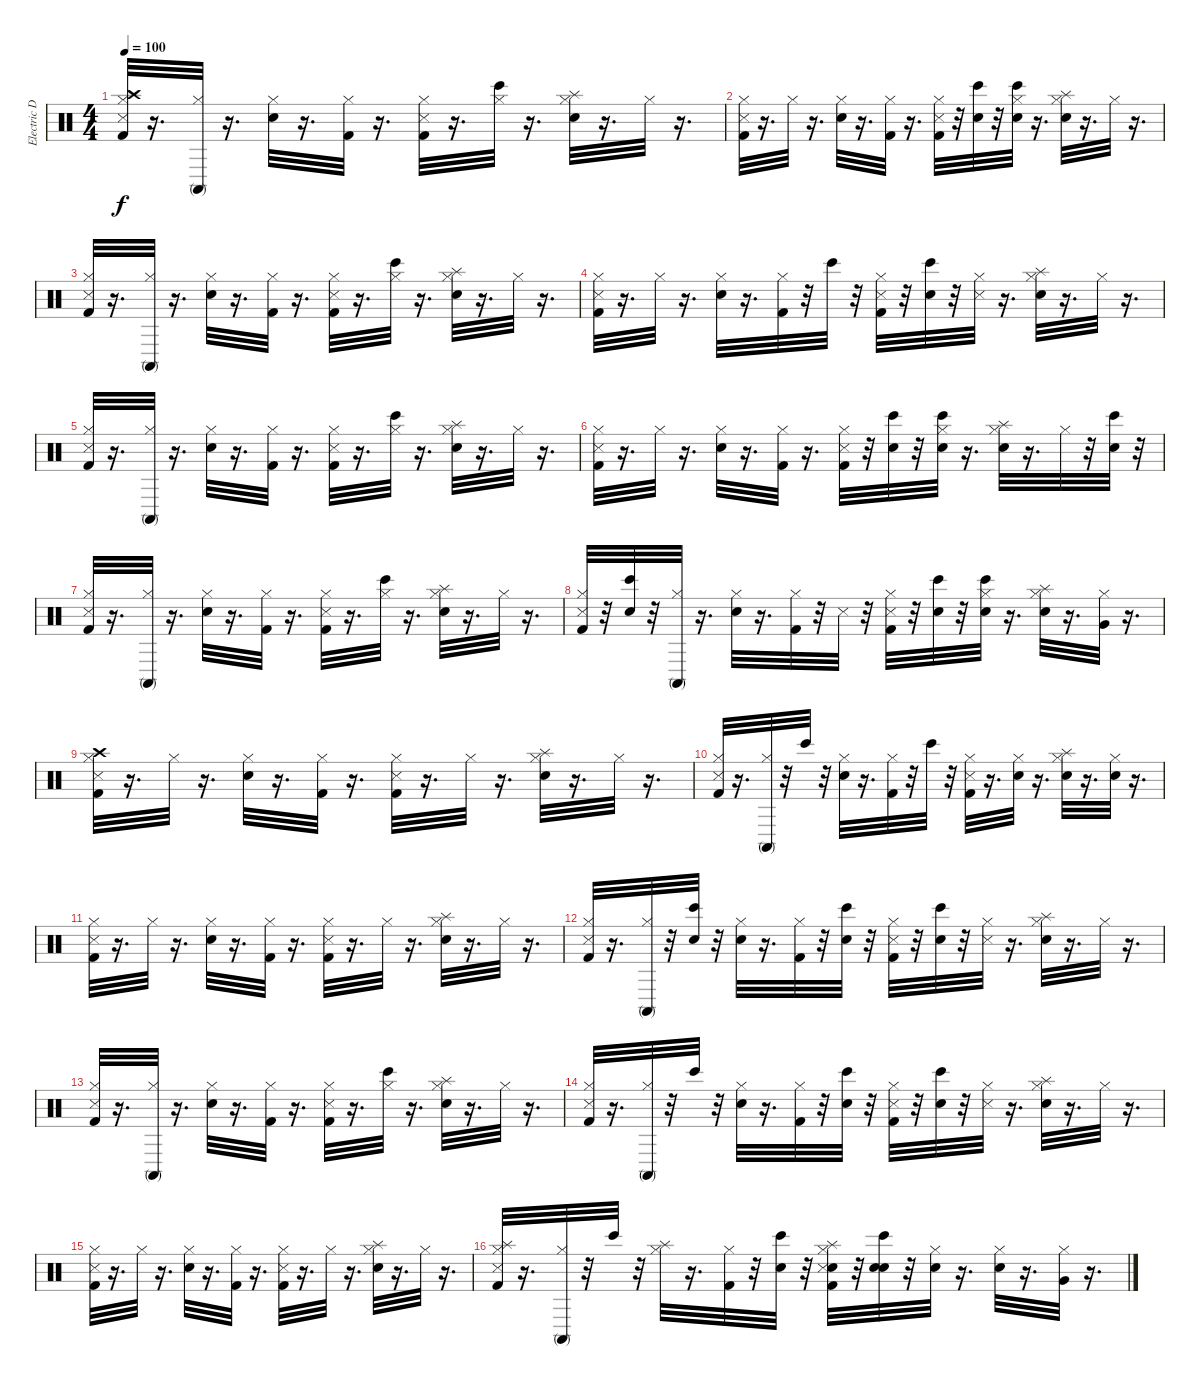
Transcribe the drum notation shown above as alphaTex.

\track ("Electric Drums" "Electric D") {instrument percussion}
\staff {score}
\articulation defaults
\ts (4 4)
\tempo 100
\clef neutral
\ks c
("Crash high (hit)" "Kick (hit) 2" "Hi-Hat (closed)" "Metronome (hit)").32{dy f} r.16{d} ("Hi-Hat (closed)" "Conga high (mute)").32 r.16{d} ("Electric Snare (hit)" "Hi-Hat (closed)").32 r.16{d} ("Kick (hit) 2" "Hi-Hat (closed)").32 r.16{d} ("Kick (hit) 2" "Hi-Hat (closed)" "Metronome (hit)").32 r.16{d} ("Hi-Hat (closed)" "Bongo High (hit)").32 r.16{d} ("Electric Snare (hit)" "Hi-Hat (closed)" "Splash (hit)").32 r.16{d} "Hi-Hat (closed)".32 r.16{d} |
("Kick (hit) 2" "Hi-Hat (closed)" "Metronome (hit)").32 r.16{d} "Hi-Hat (closed)".32 r.16{d} ("Electric Snare (hit)" "Hi-Hat (closed)").32 r.16{d} ("Kick (hit) 2" "Hi-Hat (closed)").32 r.16{d} ("Kick (hit) 2" "Hi-Hat (closed)" "Metronome (hit)").32 r.32 ("Snare (hit)" "Bongo High (hit)").32 r.32 ("Snare (hit)" "Hi-Hat (closed)" "Bongo High (hit)").32 r.16{d} ("Electric Snare (hit)" "Hi-Hat (closed)" "Splash (hit)").32 r.16{d} "Hi-Hat (closed)".32 r.16{d} |
("Kick (hit) 2" "Hi-Hat (closed)" "Metronome (hit)").32 r.16{d} ("Hi-Hat (closed)" "Conga high (mute)").32 r.16{d} ("Electric Snare (hit)" "Hi-Hat (closed)").32 r.16{d} ("Kick (hit) 2" "Hi-Hat (closed)").32 r.16{d} ("Kick (hit) 2" "Hi-Hat (closed)" "Metronome (hit)").32 r.16{d} ("Hi-Hat (closed)" "Bongo High (hit)").32 r.16{d} ("Electric Snare (hit)" "Hi-Hat (closed)" "Splash (hit)").32 r.16{d} "Hi-Hat (closed)".32 r.16{d} |
("Kick (hit) 2" "Hi-Hat (closed)" "Metronome (hit)").32 r.16{d} "Hi-Hat (closed)".32 r.16{d} ("Electric Snare (hit)" "Hi-Hat (closed)").32 r.16{d} ("Kick (hit) 2" "Hi-Hat (closed)").32 r.32 "Bongo High (hit)".32 r.32 ("Kick (hit) 2" "Hi-Hat (closed)" "Metronome (hit)").32 r.32 ("Snare (hit)" "Bongo High (hit)").32 r.32 ("Hi-Hat (closed)" "Metronome (hit)").32 r.16{d} ("Electric Snare (hit)" "Hi-Hat (closed)" "Splash (hit)").32 r.16{d} "Hi-Hat (closed)".32 r.16{d} |
("Kick (hit) 2" "Hi-Hat (closed)" "Metronome (hit)").32 r.16{d} ("Hi-Hat (closed)" "Conga high (mute)").32 r.16{d} ("Electric Snare (hit)" "Hi-Hat (closed)").32 r.16{d} ("Kick (hit) 2" "Hi-Hat (closed)").32 r.16{d} ("Kick (hit) 2" "Hi-Hat (closed)" "Metronome (hit)").32 r.16{d} ("Hi-Hat (closed)" "Bongo High (hit)").32 r.16{d} ("Electric Snare (hit)" "Hi-Hat (closed)" "Splash (hit)").32 r.16{d} "Hi-Hat (closed)".32 r.16{d} |
("Kick (hit) 2" "Hi-Hat (closed)" "Metronome (hit)").32 r.16{d} "Hi-Hat (closed)".32 r.16{d} ("Electric Snare (hit)" "Hi-Hat (closed)").32 r.16{d} ("Kick (hit) 2" "Hi-Hat (closed)").32 r.16{d} ("Kick (hit) 2" "Hi-Hat (closed)" "Metronome (hit)").32 r.32 ("Snare (hit)" "Bongo High (hit)").32 r.32 ("Snare (hit)" "Hi-Hat (closed)" "Bongo High (hit)").32 r.16{d} ("Electric Snare (hit)" "Hi-Hat (closed)" "Splash (hit)").32 r.16{d} "Hi-Hat (closed)".32 r.32 ("Snare (hit)" "Bongo High (hit)").32 r.32 |
("Kick (hit) 2" "Hi-Hat (closed)" "Metronome (hit)").32 r.16{d} ("Hi-Hat (closed)" "Conga high (mute)").32 r.16{d} ("Electric Snare (hit)" "Hi-Hat (closed)").32 r.16{d} ("Kick (hit) 2" "Hi-Hat (closed)").32 r.16{d} ("Kick (hit) 2" "Hi-Hat (closed)" "Metronome (hit)").32 r.16{d} ("Hi-Hat (closed)" "Bongo High (hit)").32 r.16{d} ("Electric Snare (hit)" "Hi-Hat (closed)" "Splash (hit)").32 r.16{d} "Hi-Hat (closed)".32 r.16{d} |
("Kick (hit) 2" "Hi-Hat (closed)" "Metronome (hit)").32 r.32 ("Snare (hit)" "Bongo High (hit)").32 r.32 ("Hi-Hat (closed)" "Conga high (mute)").32 r.16{d} ("Electric Snare (hit)" "Hi-Hat (closed)").32 r.16{d} ("Kick (hit) 2" "Hi-Hat (closed)").32 r.32 "Metronome (hit)".32 r.32 ("Kick (hit) 2" "Hi-Hat (closed)" "Metronome (hit)").32 r.32 ("Snare (hit) 2" "Bongo High (hit)").32 r.32 ("Snare (hit) 2" "Hi-Hat (closed)" "Bongo High (hit)").32 r.16{d} ("Electric Snare (hit)" "Hi-Hat (closed)" "Splash (hit)").32 r.16{d} ("Very Low Tom (hit)" "Hi-Hat (closed)").32 r.16{d} |
("Crash high (hit)" "Kick (hit) 2" "Hi-Hat (closed)" "Metronome (hit)").32 r.16{d} "Hi-Hat (closed)".32 r.16{d} ("Electric Snare (hit)" "Hi-Hat (closed)").32 r.16{d} ("Kick (hit) 2" "Hi-Hat (closed)").32 r.16{d} ("Kick (hit) 2" "Hi-Hat (closed)" "Metronome (hit)").32 r.16{d} "Hi-Hat (closed)".32 r.16{d} ("Electric Snare (hit)" "Hi-Hat (closed)" "Splash (hit)").32 r.16{d} "Hi-Hat (closed)".32 r.16{d} |
("Kick (hit) 2" "Hi-Hat (closed)" "Metronome (hit)").32 r.16{d} ("Hi-Hat (closed)" "Conga high (mute)").32 r.32 "Bongo High (hit)".32 r.32 ("Electric Snare (hit)" "Hi-Hat (closed)").32 r.16{d} ("Kick (hit) 2" "Hi-Hat (closed)").32 r.32 "Bongo High (hit)".32 r.32 ("Kick (hit) 2" "Hi-Hat (closed)" "Metronome (hit)").32 r.16{d} ("Snare (hit) 2" "Hi-Hat (closed)").32 r.16{d} ("Electric Snare (hit)" "Hi-Hat (closed)" "Splash (hit)").32 r.16{d} ("Snare (hit) 2" "Hi-Hat (closed)").32 r.16{d} |
("Kick (hit) 2" "Hi-Hat (closed)" "Metronome (hit)").32 r.16{d} "Hi-Hat (closed)".32 r.16{d} ("Electric Snare (hit)" "Hi-Hat (closed)").32 r.16{d} ("Kick (hit) 2" "Hi-Hat (closed)").32 r.16{d} ("Kick (hit) 2" "Hi-Hat (closed)" "Metronome (hit)").32 r.16{d} "Hi-Hat (closed)".32 r.16{d} ("Electric Snare (hit)" "Hi-Hat (closed)" "Splash (hit)").32 r.16{d} "Hi-Hat (closed)".32 r.16{d} |
("Kick (hit) 2" "Hi-Hat (closed)" "Metronome (hit)").32 r.16{d} ("Hi-Hat (closed)" "Conga high (mute)").32 r.32 ("Snare (hit)" "Bongo High (hit)").32 r.32 ("Electric Snare (hit)" "Hi-Hat (closed)").32 r.16{d} ("Kick (hit) 2" "Hi-Hat (closed)").32 r.32 ("Snare (hit)" "Bongo High (hit)").32 r.32 ("Kick (hit) 2" "Hi-Hat (closed)" "Metronome (hit)").32 r.32 ("Snare (hit)" "Bongo High (hit)").32 r.32 ("Hi-Hat (closed)" "Metronome (hit)").32 r.16{d} ("Electric Snare (hit)" "Hi-Hat (closed)" "Splash (hit)").32 r.16{d} "Hi-Hat (closed)".32 r.16{d} |
("Kick (hit) 2" "Hi-Hat (closed)" "Metronome (hit)").32 r.16{d} ("Hi-Hat (closed)" "Conga high (mute)").32 r.16{d} ("Electric Snare (hit)" "Hi-Hat (closed)").32 r.16{d} ("Kick (hit) 2" "Hi-Hat (closed)").32 r.16{d} ("Kick (hit) 2" "Hi-Hat (closed)" "Metronome (hit)").32 r.16{d} ("Hi-Hat (closed)" "Bongo High (hit)").32 r.16{d} ("Electric Snare (hit)" "Hi-Hat (closed)" "Splash (hit)").32 r.16{d} "Hi-Hat (closed)".32 r.16{d} |
("Kick (hit) 2" "Hi-Hat (closed)" "Metronome (hit)").32 r.16{d} ("Hi-Hat (closed)" "Conga high (mute)").32 r.32 "Bongo High (hit)".32 r.32 ("Electric Snare (hit)" "Hi-Hat (closed)").32 r.16{d} ("Kick (hit) 2" "Hi-Hat (closed)").32 r.32 ("Snare (hit)" "Bongo High (hit)").32 r.32 ("Kick (hit) 2" "Hi-Hat (closed)" "Metronome (hit)").32 r.32 ("Snare (hit)" "Bongo High (hit)").32 r.32 ("Hi-Hat (closed)" "Metronome (hit)").32 r.16{d} ("Electric Snare (hit)" "Hi-Hat (closed)" "Splash (hit)").32 r.16{d} "Hi-Hat (closed)".32 r.16{d} |
("Kick (hit) 2" "Hi-Hat (closed)" "Metronome (hit)").32 r.16{d} "Hi-Hat (closed)".32 r.16{d} ("Electric Snare (hit)" "Hi-Hat (closed)").32 r.16{d} ("Kick (hit) 2" "Hi-Hat (closed)").32 r.16{d} ("Kick (hit) 2" "Hi-Hat (closed)" "Metronome (hit)").32 r.16{d} "Hi-Hat (closed)".32 r.16{d} ("Electric Snare (hit)" "Hi-Hat (closed)" "Splash (hit)").32 r.16{d} "Hi-Hat (closed)".32 r.16{d} |
("Kick (hit) 2" "Hi-Hat (closed)" "Splash (hit)" "Metronome (hit)").32 r.16{d} ("Hi-Hat (closed)" "Conga high (mute)").32 r.32 "Bongo High (hit)".32 r.32 ("Hi-Hat (closed)" "Splash (hit)").32 r.16{d} ("Kick (hit) 2" "Hi-Hat (closed)").32 r.32 ("Snare (hit)" "Bongo High (hit)").32 r.32 ("Snare (hit) 2" "Kick (hit) 2" "Hi-Hat (closed)" "Splash (hit)" "Metronome (hit)").32 r.32 ("Snare (hit) 2" "Snare (hit)" "Bongo High (hit)").32 r.32 ("Snare (hit) 2" "Hi-Hat (closed)").32 r.16{d} ("Electric Snare (hit)" "Hi-Hat (closed)").32 r.16{d} ("Very Low Tom (hit)" "Hi-Hat (closed)").32 r.16{d}
